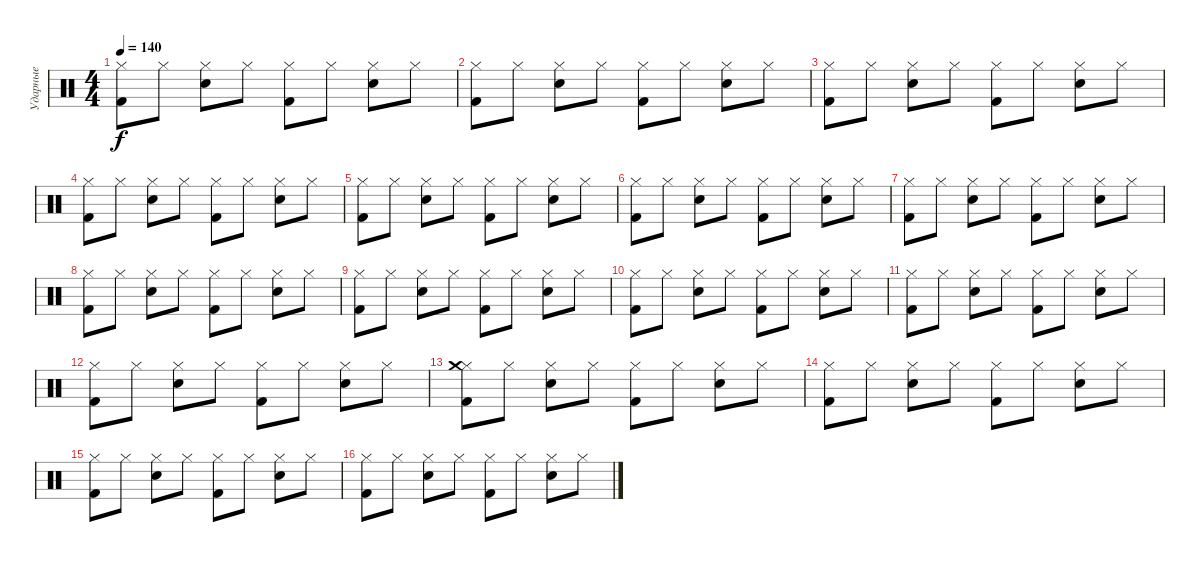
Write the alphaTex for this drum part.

\track ("Ударные" "Ударные") {instrument percussion}
\staff {score}
\articulation defaults
\ts (4 4)
\tempo 140
\clef neutral
\ks c
("Hi-Hat (closed)" "Kick (hit) 2").8{dy f} "Hi-Hat (closed)".8 ("Hi-Hat (closed)" "Snare (hit) 2").8 "Hi-Hat (closed)".8 ("Hi-Hat (closed)" "Kick (hit) 2").8 "Hi-Hat (closed)".8 ("Hi-Hat (closed)" "Snare (hit) 2").8 "Hi-Hat (closed)".8 |
("Hi-Hat (closed)" "Kick (hit) 2").8 "Hi-Hat (closed)".8 ("Hi-Hat (closed)" "Snare (hit) 2").8 "Hi-Hat (closed)".8 ("Hi-Hat (closed)" "Kick (hit) 2").8 "Hi-Hat (closed)".8 ("Hi-Hat (closed)" "Snare (hit) 2").8 "Hi-Hat (closed)".8 |
("Hi-Hat (closed)" "Kick (hit) 2").8 "Hi-Hat (closed)".8 ("Hi-Hat (closed)" "Snare (hit) 2").8 "Hi-Hat (closed)".8 ("Hi-Hat (closed)" "Kick (hit) 2").8 "Hi-Hat (closed)".8 ("Hi-Hat (closed)" "Snare (hit) 2").8 "Hi-Hat (closed)".8 |
("Hi-Hat (closed)" "Kick (hit) 2").8 "Hi-Hat (closed)".8 ("Hi-Hat (closed)" "Snare (hit) 2").8 "Hi-Hat (closed)".8 ("Hi-Hat (closed)" "Kick (hit) 2").8 "Hi-Hat (closed)".8 ("Hi-Hat (closed)" "Snare (hit) 2").8 "Hi-Hat (closed)".8 |
("Hi-Hat (closed)" "Kick (hit) 2").8 "Hi-Hat (closed)".8 ("Hi-Hat (closed)" "Snare (hit) 2").8 "Hi-Hat (closed)".8 ("Hi-Hat (closed)" "Kick (hit) 2").8 "Hi-Hat (closed)".8 ("Hi-Hat (closed)" "Snare (hit) 2").8 "Hi-Hat (closed)".8 |
("Hi-Hat (closed)" "Kick (hit) 2").8 "Hi-Hat (closed)".8 ("Hi-Hat (closed)" "Snare (hit) 2").8 "Hi-Hat (closed)".8 ("Hi-Hat (closed)" "Kick (hit) 2").8 "Hi-Hat (closed)".8 ("Hi-Hat (closed)" "Snare (hit) 2").8 "Hi-Hat (closed)".8 |
("Hi-Hat (closed)" "Kick (hit) 2").8 "Hi-Hat (closed)".8 ("Hi-Hat (closed)" "Snare (hit) 2").8 "Hi-Hat (closed)".8 ("Hi-Hat (closed)" "Kick (hit) 2").8 "Hi-Hat (closed)".8 ("Hi-Hat (closed)" "Snare (hit) 2").8 "Hi-Hat (closed)".8 |
("Hi-Hat (closed)" "Kick (hit) 2").8 "Hi-Hat (closed)".8 ("Hi-Hat (closed)" "Snare (hit) 2").8 "Hi-Hat (closed)".8 ("Hi-Hat (closed)" "Kick (hit) 2").8 "Hi-Hat (closed)".8 ("Hi-Hat (closed)" "Snare (hit) 2").8 "Hi-Hat (closed)".8 |
("Hi-Hat (closed)" "Kick (hit) 2").8 "Hi-Hat (closed)".8 ("Hi-Hat (closed)" "Snare (hit) 2").8 "Hi-Hat (closed)".8 ("Hi-Hat (closed)" "Kick (hit) 2").8 "Hi-Hat (closed)".8 ("Hi-Hat (closed)" "Snare (hit) 2").8 "Hi-Hat (closed)".8 |
("Hi-Hat (closed)" "Kick (hit) 2").8 "Hi-Hat (closed)".8 ("Hi-Hat (closed)" "Snare (hit) 2").8 "Hi-Hat (closed)".8 ("Hi-Hat (closed)" "Kick (hit) 2").8 "Hi-Hat (closed)".8 ("Hi-Hat (closed)" "Snare (hit) 2").8 "Hi-Hat (closed)".8 |
("Hi-Hat (closed)" "Kick (hit) 2").8 "Hi-Hat (closed)".8 ("Hi-Hat (closed)" "Snare (hit) 2").8 "Hi-Hat (closed)".8 ("Hi-Hat (closed)" "Kick (hit) 2").8 "Hi-Hat (closed)".8 ("Hi-Hat (closed)" "Snare (hit) 2").8 "Hi-Hat (closed)".8 |
("Hi-Hat (closed)" "Kick (hit) 2").8 "Hi-Hat (closed)".8 ("Hi-Hat (closed)" "Snare (hit) 2").8 "Hi-Hat (closed)".8 ("Hi-Hat (closed)" "Kick (hit) 2").8 "Hi-Hat (closed)".8 ("Hi-Hat (closed)" "Snare (hit) 2").8 "Hi-Hat (closed)".8 |
("Hi-Hat (closed)" "Kick (hit) 2" "Crash medium (hit)").8 "Hi-Hat (closed)".8 ("Hi-Hat (closed)" "Snare (hit) 2").8 "Hi-Hat (closed)".8 ("Hi-Hat (closed)" "Kick (hit) 2").8 "Hi-Hat (closed)".8 ("Hi-Hat (closed)" "Snare (hit) 2").8 "Hi-Hat (closed)".8 |
("Hi-Hat (closed)" "Kick (hit) 2").8 "Hi-Hat (closed)".8 ("Hi-Hat (closed)" "Snare (hit) 2").8 "Hi-Hat (closed)".8 ("Hi-Hat (closed)" "Kick (hit) 2").8 "Hi-Hat (closed)".8 ("Hi-Hat (closed)" "Snare (hit) 2").8 "Hi-Hat (closed)".8 |
("Hi-Hat (closed)" "Kick (hit) 2").8 "Hi-Hat (closed)".8 ("Hi-Hat (closed)" "Snare (hit) 2").8 "Hi-Hat (closed)".8 ("Hi-Hat (closed)" "Kick (hit) 2").8 "Hi-Hat (closed)".8 ("Hi-Hat (closed)" "Snare (hit) 2").8 "Hi-Hat (closed)".8 |
("Hi-Hat (closed)" "Kick (hit) 2").8 "Hi-Hat (closed)".8 ("Hi-Hat (closed)" "Snare (hit) 2").8 "Hi-Hat (closed)".8 ("Hi-Hat (closed)" "Kick (hit) 2").8 "Hi-Hat (closed)".8 ("Hi-Hat (closed)" "Snare (hit) 2").8 "Hi-Hat (closed)".8
